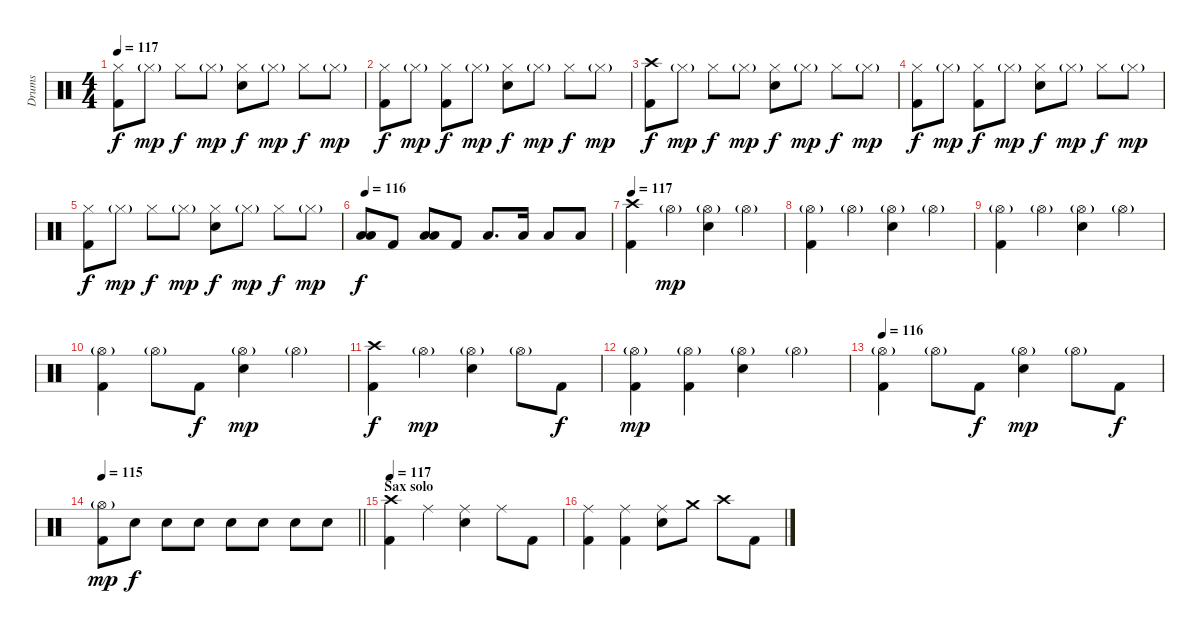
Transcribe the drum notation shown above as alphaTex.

\track ("Drums" "Drums") {instrument percussion}
\staff {score}
\articulation defaults
\ts (4 4)
\tempo 117
\clef neutral
\ks c
("Hi-Hat (closed)" "Kick (hit) 2").8{dy f} "Hi-Hat (closed)"{g}.8{dy mp} "Hi-Hat (closed)".8{dy f} "Hi-Hat (closed)"{g}.8{dy mp} ("Hi-Hat (closed)" "Snare (hit) 2").8{dy f} "Hi-Hat (closed)"{g}.8{dy mp} "Hi-Hat (closed)".8{dy f} "Hi-Hat (closed)"{g}.8{dy mp} |
("Hi-Hat (closed)" "Kick (hit) 2").8{dy f} "Hi-Hat (closed)"{g}.8{dy mp} ("Hi-Hat (closed)" "Kick (hit) 2").8{dy f} "Hi-Hat (closed)"{g}.8{dy mp} ("Hi-Hat (closed)" "Snare (hit) 2").8{dy f} "Hi-Hat (closed)"{g}.8{dy mp} "Hi-Hat (closed)".8{dy f} "Hi-Hat (closed)"{g}.8{dy mp} |
("Crash high (hit)" "Kick (hit) 2").8{dy f} "Hi-Hat (closed)"{g}.8{dy mp} "Hi-Hat (closed)".8{dy f} "Hi-Hat (closed)"{g}.8{dy mp} ("Hi-Hat (closed)" "Snare (hit) 2").8{dy f} "Hi-Hat (closed)"{g}.8{dy mp} "Hi-Hat (closed)".8{dy f} "Hi-Hat (closed)"{g}.8{dy mp} |
("Hi-Hat (closed)" "Kick (hit) 2").8{dy f} "Hi-Hat (closed)"{g}.8{dy mp} ("Hi-Hat (closed)" "Kick (hit) 2").8{dy f} "Hi-Hat (closed)"{g}.8{dy mp} ("Hi-Hat (closed)" "Snare (hit) 2").8{dy f} "Hi-Hat (closed)"{g}.8{dy mp} "Hi-Hat (closed)".8{dy f} "Hi-Hat (closed)"{g}.8{dy mp} |
("Hi-Hat (closed)" "Kick (hit) 2").8{dy f} "Hi-Hat (closed)"{g}.8{dy mp} "Hi-Hat (closed)".8{dy f} "Hi-Hat (closed)"{g}.8{dy mp} ("Hi-Hat (closed)" "Snare (hit) 2").8{dy f} "Hi-Hat (closed)"{g}.8{dy mp} "Hi-Hat (closed)".8{dy f} "Hi-Hat (closed)"{g}.8{dy mp} |
\tempo 116
("Low Tom (hit)" "Low Floor Tom (hit)").8{dy f} "Kick (hit) 2".8 ("Low Tom (hit)" "Low Floor Tom (hit)").8 "Kick (hit) 2".8 "Low Tom (hit)".8{d} "Low Tom (hit)".16 "Low Floor Tom (hit)".8 "Low Floor Tom (hit)".8 |
\tempo 117
("Crash high (hit)" "Kick (hit) 2").4 "Hi-Hat (open)"{g}.4{dy mp} ("Hi-Hat (open)"{g} "Snare (hit) 2").4 "Hi-Hat (open)"{g}.4 |
("Hi-Hat (open)"{g} "Kick (hit) 2").4 "Hi-Hat (open)"{g}.4 ("Hi-Hat (open)"{g} "Snare (hit) 2").4 "Hi-Hat (open)"{g}.4 |
("Hi-Hat (open)"{g} "Kick (hit) 2").4 "Hi-Hat (open)"{g}.4 ("Hi-Hat (open)"{g} "Snare (hit) 2").4 "Hi-Hat (open)"{g}.4 |
("Hi-Hat (open)"{g} "Kick (hit) 2").4 "Hi-Hat (open)"{g}.8 "Kick (hit) 2".8{dy f} ("Hi-Hat (open)"{g} "Snare (hit) 2").4{dy mp} "Hi-Hat (open)"{g}.4 |
("Crash high (hit)" "Kick (hit) 2").4{dy f} "Hi-Hat (open)"{g}.4{dy mp} ("Hi-Hat (open)"{g} "Snare (hit) 2").4 "Hi-Hat (open)"{g}.8 "Kick (hit) 2".8{dy f} |
("Hi-Hat (open)"{g} "Kick (hit) 2").4{dy mp} ("Hi-Hat (open)"{g} "Kick (hit) 2").4 ("Hi-Hat (open)"{g} "Snare (hit) 2").4 "Hi-Hat (open)"{g}.4 |
\tempo 116
("Hi-Hat (open)"{g} "Kick (hit) 2").4 "Hi-Hat (open)"{g}.8 "Kick (hit) 2".8{dy f} ("Hi-Hat (open)"{g} "Snare (hit) 2").4{dy mp} "Hi-Hat (open)"{g}.8 "Kick (hit) 2".8{dy f} |
\tempo 115
\barLineRight lightlight
("Hi-Hat (open)"{g} "Kick (hit) 2").8{dy mp} "Snare (hit) 2".8{dy f} "Snare (hit) 2".8 "Snare (hit) 2".8 "Snare (hit) 2".8 "Snare (hit) 2".8 "Snare (hit) 2".8 "Snare (hit) 2".8 |
\section ("" "Sax solo")
\tempo 117
("Crash high (hit)" "Kick (hit) 2").4 "Ride (middle)".4 ("Ride (middle)" "Snare (hit) 2").4 "Ride (middle)".8 "Kick (hit) 2".8 |
("Ride (middle)" "Kick (hit) 2").4 ("Ride (middle)" "Kick (hit) 2").4 ("Ride (middle)" "Snare (hit) 2").8 "Crash medium (hit)".8 "Crash high (hit)".8 "Kick (hit) 2".8
